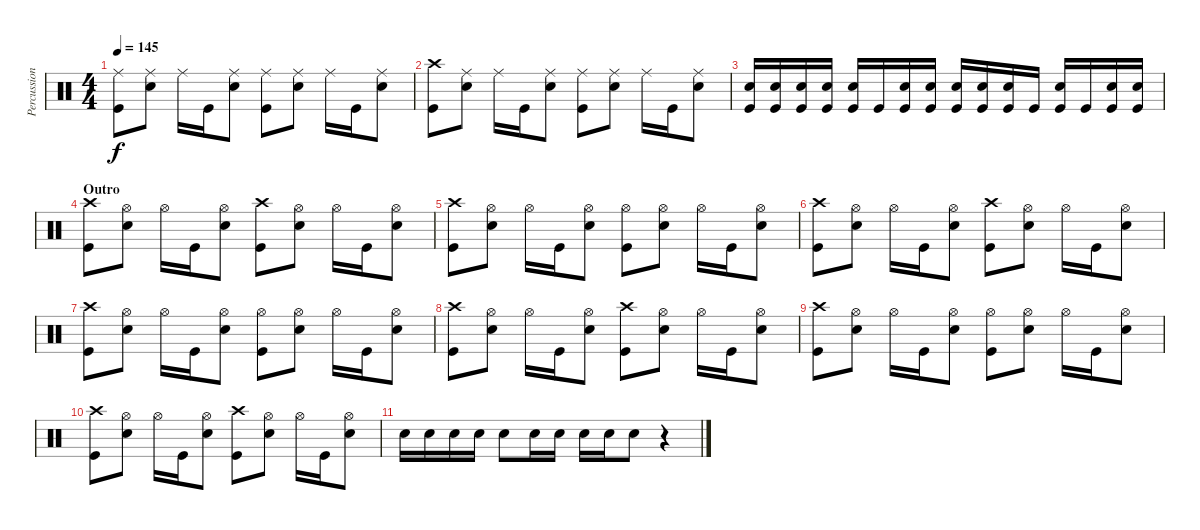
\track ("Percussions" "Percussion") {instrument percussion}
\staff {score}
\articulation defaults
\ts (4 4)
\tempo 145
\clef neutral
\ks c
("Ride (middle)" "Kick (hit)").8{dy f} ("Ride (middle)" "Snare (hit) 2").8 "Ride (middle)".16 "Kick (hit)".16 ("Ride (middle)" "Snare (hit) 2").8 ("Ride (middle)" "Kick (hit)").8 ("Ride (middle)" "Snare (hit) 2").8 "Ride (middle)".16 "Kick (hit)".16 ("Ride (middle)" "Snare (hit) 2").8 |
("Crash high (hit)" "Kick (hit)").8 ("Ride (middle)" "Snare (hit) 2").8 "Ride (middle)".16 "Kick (hit)".16 ("Ride (middle)" "Snare (hit) 2").8 ("Ride (middle)" "Kick (hit)").8 ("Ride (middle)" "Snare (hit) 2").8 "Ride (middle)".16 "Kick (hit)".16 ("Ride (middle)" "Snare (hit) 2").8 |
("Snare (hit) 2" "Kick (hit)").16 ("Snare (hit) 2" "Kick (hit)").16 ("Snare (hit) 2" "Kick (hit)").16 ("Snare (hit) 2" "Kick (hit)").16 ("Snare (hit) 2" "Kick (hit)").16 "Kick (hit)".16 ("Snare (hit) 2" "Kick (hit)").16 ("Snare (hit) 2" "Kick (hit)").16 ("Snare (hit) 2" "Kick (hit)").16 ("Snare (hit) 2" "Kick (hit)").16 ("Snare (hit) 2" "Kick (hit)").16 "Kick (hit)".16 ("Snare (hit) 2" "Kick (hit)").16 "Kick (hit)".16 ("Snare (hit) 2" "Kick (hit)").16 ("Snare (hit) 2" "Kick (hit)").16 |
\section ("" "Outro")
("Crash high (hit)" "Kick (hit)").8 ("Hi-Hat (open)" "Snare (hit) 2").8 "Hi-Hat (open)".16 "Kick (hit)".16 ("Hi-Hat (open)" "Snare (hit) 2").8 ("Crash high (hit)" "Kick (hit)").8 ("Hi-Hat (open)" "Snare (hit) 2").8 "Hi-Hat (open)".16 "Kick (hit)".16 ("Hi-Hat (open)" "Snare (hit) 2").8 |
("Crash high (hit)" "Kick (hit)").8 ("Hi-Hat (open)" "Snare (hit) 2").8 "Hi-Hat (open)".16 "Kick (hit)".16 ("Hi-Hat (open)" "Snare (hit) 2").8 ("Hi-Hat (open)" "Kick (hit)").8 ("Hi-Hat (open)" "Snare (hit) 2").8 "Hi-Hat (open)".16 "Kick (hit)".16 ("Hi-Hat (open)" "Snare (hit) 2").8 |
("Crash high (hit)" "Kick (hit)").8 ("Hi-Hat (open)" "Snare (hit) 2").8 "Hi-Hat (open)".16 "Kick (hit)".16 ("Hi-Hat (open)" "Snare (hit) 2").8 ("Crash high (hit)" "Kick (hit)").8 ("Hi-Hat (open)" "Snare (hit) 2").8 "Hi-Hat (open)".16 "Kick (hit)".16 ("Hi-Hat (open)" "Snare (hit) 2").8 |
("Crash high (hit)" "Kick (hit)").8 ("Hi-Hat (open)" "Snare (hit) 2").8 "Hi-Hat (open)".16 "Kick (hit)".16 ("Hi-Hat (open)" "Snare (hit) 2").8 ("Hi-Hat (open)" "Kick (hit)").8 ("Hi-Hat (open)" "Snare (hit) 2").8 "Hi-Hat (open)".16 "Kick (hit)".16 ("Hi-Hat (open)" "Snare (hit) 2").8 |
("Crash high (hit)" "Kick (hit)").8 ("Hi-Hat (open)" "Snare (hit) 2").8 "Hi-Hat (open)".16 "Kick (hit)".16 ("Hi-Hat (open)" "Snare (hit) 2").8 ("Crash high (hit)" "Kick (hit)").8 ("Hi-Hat (open)" "Snare (hit) 2").8 "Hi-Hat (open)".16 "Kick (hit)".16 ("Hi-Hat (open)" "Snare (hit) 2").8 |
("Crash high (hit)" "Kick (hit)").8 ("Hi-Hat (open)" "Snare (hit) 2").8 "Hi-Hat (open)".16 "Kick (hit)".16 ("Hi-Hat (open)" "Snare (hit) 2").8 ("Hi-Hat (open)" "Kick (hit)").8 ("Hi-Hat (open)" "Snare (hit) 2").8 "Hi-Hat (open)".16 "Kick (hit)".16 ("Hi-Hat (open)" "Snare (hit) 2").8 |
("Crash high (hit)" "Kick (hit)").8 ("Hi-Hat (open)" "Snare (hit) 2").8 "Hi-Hat (open)".16 "Kick (hit)".16 ("Hi-Hat (open)" "Snare (hit) 2").8 ("Crash high (hit)" "Kick (hit)").8 ("Hi-Hat (open)" "Snare (hit) 2").8 "Hi-Hat (open)".16 "Kick (hit)".16 ("Hi-Hat (open)" "Snare (hit) 2").8 |
"Snare (hit) 2".16 "Snare (hit) 2".16 "Snare (hit) 2".16 "Snare (hit) 2".16 "Snare (hit) 2".8 "Snare (hit) 2".16 "Snare (hit) 2".16 "Snare (hit) 2".16 "Snare (hit) 2".16 "Snare (hit) 2".8 r.4
